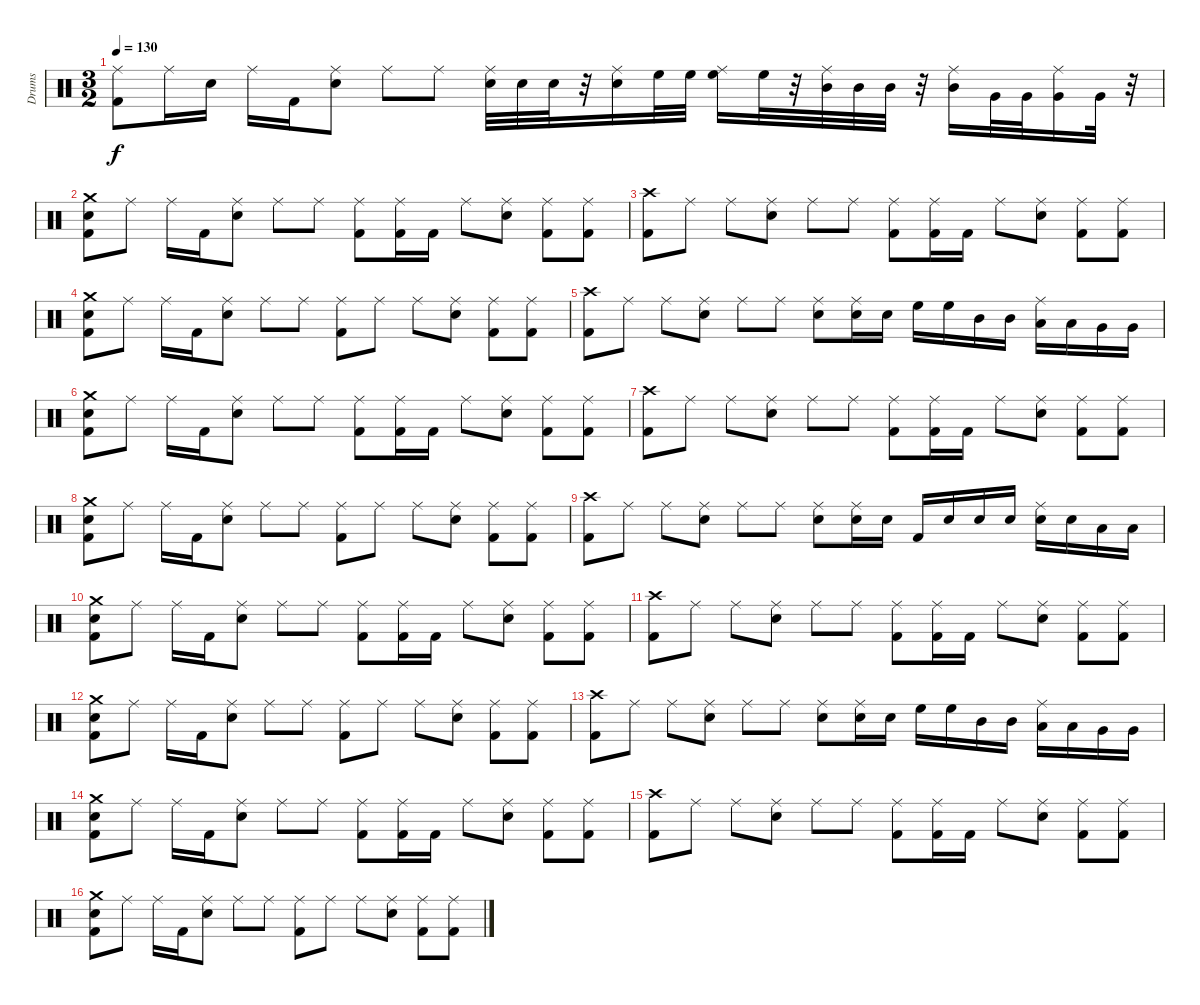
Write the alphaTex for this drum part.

\track ("Drums" "Drums") {instrument percussion}
\staff {score}
\articulation defaults
\ts (3 2)
\tempo 130
\clef neutral
\ks c
("Kick (hit) 2" "Ride (middle)").8{dy f} "Ride (middle)".16 "Electric Snare (hit)".16 "Ride (middle)".16 "Kick (hit) 2".16 ("Electric Snare (hit)" "Ride (middle)").8 "Ride (middle)".8 "Ride (middle)".8 ("Electric Snare (hit)" "Ride (middle)").32 "Electric Snare (hit)".32 "Electric Snare (hit)".32 r.32 ("Ride (middle)" "Electric Snare (hit)").16 "High Floor Tom (hit)".32 "High Floor Tom (hit)".32 ("High Floor Tom (hit)" "Ride (middle)").16 "High Floor Tom (hit)".32 r.32 ("Mid Tom (hit)" "Ride (middle)").32 "Mid Tom (hit)".32 "Mid Tom (hit)".32 r.32 ("Ride (middle)" "Mid Tom (hit)").16 "Very Low Tom (hit)".32 "Very Low Tom (hit)".32 ("Ride (middle)" "Very Low Tom (hit)").16 "Very Low Tom (hit)".32 r.32 |
("Kick (hit) 2" "Electric Snare (hit)" "Crash medium (hit)").8 "Ride (middle)".8 "Ride (middle)".16 "Kick (hit) 2".16 ("Electric Snare (hit)" "Ride (middle)").8 "Ride (middle)".8 "Ride (middle)".8 ("Kick (hit) 2" "Ride (middle)").8 ("Ride (middle)" "Kick (hit) 2").16 "Kick (hit) 2".16 "Ride (middle)".8 ("Electric Snare (hit)" "Ride (middle)").8 ("Ride (middle)" "Kick (hit) 2").8 ("Ride (middle)" "Kick (hit) 2").8 |
("Kick (hit) 2" "Crash high (hit)").8 "Ride (middle)".8 "Ride (middle)".8 ("Electric Snare (hit)" "Ride (middle)").8 "Ride (middle)".8 "Ride (middle)".8 ("Kick (hit) 2" "Ride (middle)").8 ("Kick (hit) 2" "Ride (middle)").16 "Kick (hit) 2".16 "Ride (middle)".8 ("Ride (middle)" "Electric Snare (hit)").8 ("Kick (hit) 2" "Ride (middle)").8 ("Kick (hit) 2" "Ride (middle)").8 |
("Electric Snare (hit)" "Crash medium (hit)" "Kick (hit) 2").8 "Ride (middle)".8 "Ride (middle)".16 "Kick (hit) 2".16 ("Ride (middle)" "Electric Snare (hit)").8 "Ride (middle)".8 "Ride (middle)".8 ("Kick (hit) 2" "Ride (middle)").8 "Ride (middle)".8 "Ride (middle)".8 ("Ride (middle)" "Electric Snare (hit)").8 ("Ride (middle)" "Kick (hit) 2").8 ("Ride (middle)" "Kick (hit) 2").8 |
("Kick (hit) 2" "Crash high (hit)").8 "Ride (middle)".8 "Ride (middle)".8 ("Electric Snare (hit)" "Ride (middle)").8 "Ride (middle)".8 "Ride (middle)".8 ("Electric Snare (hit)" "Ride (middle)").8 ("Ride (middle)" "Electric Snare (hit)").16 "Electric Snare (hit)".16 "High Floor Tom (hit)".16 "High Floor Tom (hit)".16 "Mid Tom (hit)".16 "Mid Tom (hit)".16 ("Ride (middle)" "Low Tom (hit)").16 "Low Tom (hit)".16 "Very Low Tom (hit)".16 "Very Low Tom (hit)".16 |
("Crash medium (hit)" "Kick (hit) 2" "Electric Snare (hit)").8 "Ride (middle)".8 "Ride (middle)".16 "Kick (hit) 2".16 ("Ride (middle)" "Electric Snare (hit)").8 "Ride (middle)".8 "Ride (middle)".8 ("Kick (hit) 2" "Ride (middle)").8 ("Ride (middle)" "Kick (hit) 2").16 "Kick (hit) 2".16 "Ride (middle)".8 ("Electric Snare (hit)" "Ride (middle)").8 ("Kick (hit) 2" "Ride (middle)").8 ("Kick (hit) 2" "Ride (middle)").8 |
("Crash high (hit)" "Kick (hit) 2").8 "Ride (middle)".8 "Ride (middle)".8 ("Ride (middle)" "Electric Snare (hit)").8 "Ride (middle)".8 "Ride (middle)".8 ("Kick (hit) 2" "Ride (middle)").8 ("Kick (hit) 2" "Ride (middle)").16 "Kick (hit) 2".16 "Ride (middle)".8 ("Ride (middle)" "Electric Snare (hit)").8 ("Kick (hit) 2" "Ride (middle)").8 ("Kick (hit) 2" "Ride (middle)").8 |
("Kick (hit) 2" "Crash medium (hit)" "Electric Snare (hit)").8 "Ride (middle)".8 "Ride (middle)".16 "Kick (hit) 2".16 ("Electric Snare (hit)" "Ride (middle)").8 "Ride (middle)".8 "Ride (middle)".8 ("Ride (middle)" "Kick (hit) 2").8 "Ride (middle)".8 "Ride (middle)".8 ("Electric Snare (hit)" "Ride (middle)").8 ("Kick (hit) 2" "Ride (middle)").8 ("Kick (hit) 2" "Ride (middle)").8 |
("Kick (hit) 2" "Crash high (hit)").8 "Ride (middle)".8 "Ride (middle)".8 ("Electric Snare (hit)" "Ride (middle)").8 "Ride (middle)".8 "Ride (middle)".8 ("Electric Snare (hit)" "Ride (middle)").8 ("Electric Snare (hit)" "Ride (middle)").16 "Electric Snare (hit)".16 "Kick (hit) 2".16 "Electric Snare (hit)".16 "Electric Snare (hit)".16 "Electric Snare (hit)".16 ("Ride (middle)" "Electric Snare (hit)").16 "Electric Snare (hit)".16 "Low Floor Tom (hit)".16 "Low Floor Tom (hit)".16 |
("Crash medium (hit)" "Kick (hit) 2" "Electric Snare (hit)").8 "Ride (middle)".8 "Ride (middle)".16 "Kick (hit) 2".16 ("Electric Snare (hit)" "Ride (middle)").8 "Ride (middle)".8 "Ride (middle)".8 ("Ride (middle)" "Kick (hit) 2").8 ("Ride (middle)" "Kick (hit) 2").16 "Kick (hit) 2".16 "Ride (middle)".8 ("Electric Snare (hit)" "Ride (middle)").8 ("Kick (hit) 2" "Ride (middle)").8 ("Ride (middle)" "Kick (hit) 2").8 |
("Crash high (hit)" "Kick (hit) 2").8 "Ride (middle)".8 "Ride (middle)".8 ("Ride (middle)" "Electric Snare (hit)").8 "Ride (middle)".8 "Ride (middle)".8 ("Kick (hit) 2" "Ride (middle)").8 ("Ride (middle)" "Kick (hit) 2").16 "Kick (hit) 2".16 "Ride (middle)".8 ("Electric Snare (hit)" "Ride (middle)").8 ("Kick (hit) 2" "Ride (middle)").8 ("Ride (middle)" "Kick (hit) 2").8 |
("Kick (hit) 2" "Crash medium (hit)" "Electric Snare (hit)").8 "Ride (middle)".8 "Ride (middle)".16 "Kick (hit) 2".16 ("Ride (middle)" "Electric Snare (hit)").8 "Ride (middle)".8 "Ride (middle)".8 ("Kick (hit) 2" "Ride (middle)").8 "Ride (middle)".8 "Ride (middle)".8 ("Ride (middle)" "Electric Snare (hit)").8 ("Kick (hit) 2" "Ride (middle)").8 ("Kick (hit) 2" "Ride (middle)").8 |
("Kick (hit) 2" "Crash high (hit)").8 "Ride (middle)".8 "Ride (middle)".8 ("Electric Snare (hit)" "Ride (middle)").8 "Ride (middle)".8 "Ride (middle)".8 ("Electric Snare (hit)" "Ride (middle)").8 ("Ride (middle)" "Electric Snare (hit)").16 "Electric Snare (hit)".16 "High Floor Tom (hit)".16 "High Floor Tom (hit)".16 "Mid Tom (hit)".16 "Mid Tom (hit)".16 ("Ride (middle)" "Low Tom (hit)").16 "Low Tom (hit)".16 "Very Low Tom (hit)".16 "Very Low Tom (hit)".16 |
("Electric Snare (hit)" "Crash medium (hit)" "Kick (hit) 2").8 "Ride (middle)".8 "Ride (middle)".16 "Kick (hit) 2".16 ("Electric Snare (hit)" "Ride (middle)").8 "Ride (middle)".8 "Ride (middle)".8 ("Kick (hit) 2" "Ride (middle)").8 ("Ride (middle)" "Kick (hit) 2").16 "Kick (hit) 2".16 "Ride (middle)".8 ("Electric Snare (hit)" "Ride (middle)").8 ("Ride (middle)" "Kick (hit) 2").8 ("Kick (hit) 2" "Ride (middle)").8 |
("Crash high (hit)" "Kick (hit) 2").8 "Ride (middle)".8 "Ride (middle)".8 ("Electric Snare (hit)" "Ride (middle)").8 "Ride (middle)".8 "Ride (middle)".8 ("Ride (middle)" "Kick (hit) 2").8 ("Ride (middle)" "Kick (hit) 2").16 "Kick (hit) 2".16 "Ride (middle)".8 ("Electric Snare (hit)" "Ride (middle)").8 ("Kick (hit) 2" "Ride (middle)").8 ("Ride (middle)" "Kick (hit) 2").8 |
("Electric Snare (hit)" "Crash medium (hit)" "Kick (hit) 2").8 "Ride (middle)".8 "Ride (middle)".16 "Kick (hit) 2".16 ("Electric Snare (hit)" "Ride (middle)").8 "Ride (middle)".8 "Ride (middle)".8 ("Kick (hit) 2" "Ride (middle)").8 "Ride (middle)".8 "Ride (middle)".8 ("Ride (middle)" "Electric Snare (hit)").8 ("Ride (middle)" "Kick (hit) 2").8 ("Kick (hit) 2" "Ride (middle)").8
